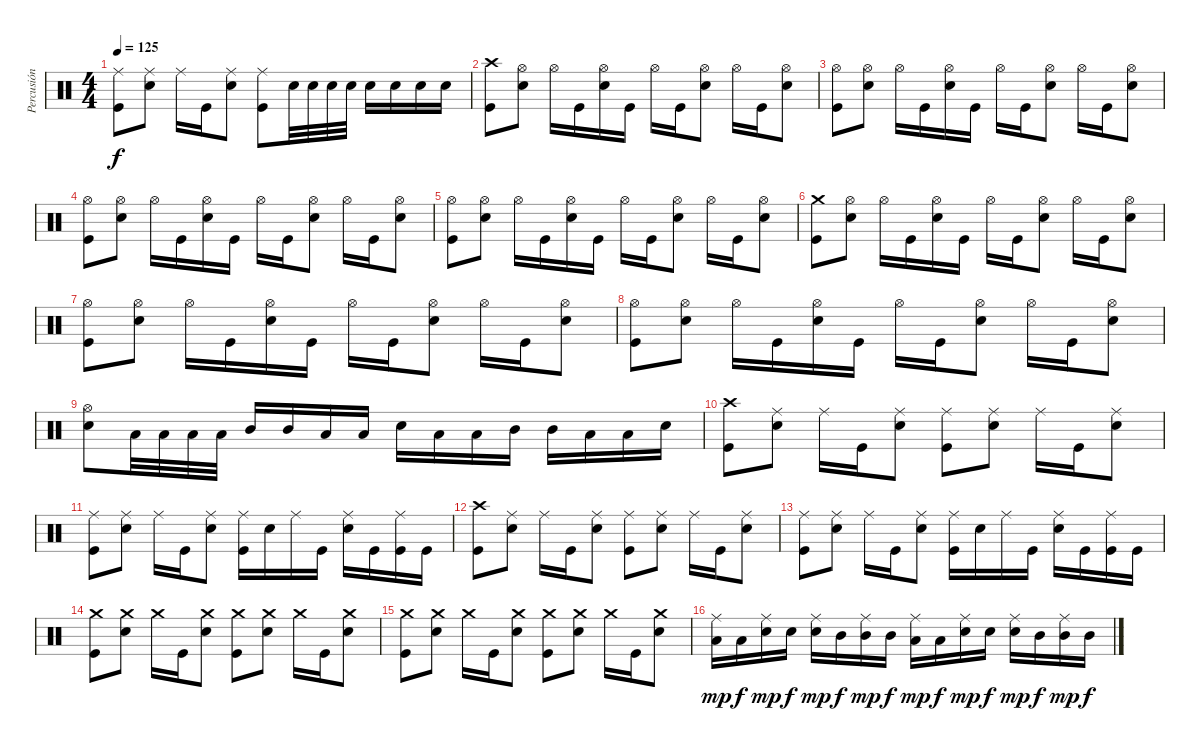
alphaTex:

\track ("Percusión" "Percusión") {instrument percussion}
\staff {score}
\articulation defaults
\ts (4 4)
\tempo 125
\clef neutral
\ks c
("Kick (hit)" "Ride (middle)").8{dy f} ("Snare (hit) 2" "Ride (middle)").8 "Ride (middle)".16 "Kick (hit)".16 ("Snare (hit) 2" "Ride (middle)").8 ("Kick (hit)" "Ride (middle)").8 "Snare (hit) 2".32 "Snare (hit) 2".32 "Snare (hit) 2".32 "Snare (hit) 2".32 "Snare (hit) 2".16 "Snare (hit) 2".16 "Snare (hit) 2".16 "Snare (hit) 2".16 |
("Kick (hit)" "Crash high (hit)").8 ("Snare (hit) 2" "Hi-Hat (open)").8 "Hi-Hat (open)".16 "Kick (hit)".16 ("Snare (hit) 2" "Hi-Hat (open)").16 "Kick (hit)".16 "Hi-Hat (open)".16 "Kick (hit)".16 ("Snare (hit) 2" "Hi-Hat (open)").8 "Hi-Hat (open)".16 "Kick (hit)".16 ("Snare (hit) 2" "Hi-Hat (open)").8 |
("Kick (hit)" "Hi-Hat (open)").8 ("Snare (hit) 2" "Hi-Hat (open)").8 "Hi-Hat (open)".16 "Kick (hit)".16 ("Snare (hit) 2" "Hi-Hat (open)").16 "Kick (hit)".16 "Hi-Hat (open)".16 "Kick (hit)".16 ("Snare (hit) 2" "Hi-Hat (open)").8 "Hi-Hat (open)".16 "Kick (hit)".16 ("Snare (hit) 2" "Hi-Hat (open)").8 |
("Kick (hit)" "Hi-Hat (open)").8 ("Snare (hit) 2" "Hi-Hat (open)").8 "Hi-Hat (open)".16 "Kick (hit)".16 ("Snare (hit) 2" "Hi-Hat (open)").16 "Kick (hit)".16 "Hi-Hat (open)".16 "Kick (hit)".16 ("Snare (hit) 2" "Hi-Hat (open)").8 "Hi-Hat (open)".16 "Kick (hit)".16 ("Snare (hit) 2" "Hi-Hat (open)").8 |
("Kick (hit)" "Hi-Hat (open)").8 ("Snare (hit) 2" "Hi-Hat (open)").8 "Hi-Hat (open)".16 "Kick (hit)".16 ("Snare (hit) 2" "Hi-Hat (open)").16 "Kick (hit)".16 "Hi-Hat (open)".16 "Kick (hit)".16 ("Snare (hit) 2" "Hi-Hat (open)").8 "Hi-Hat (open)".16 "Kick (hit)".16 ("Snare (hit) 2" "Hi-Hat (open)").8 |
("Kick (hit)" "Crash medium (hit)").8 ("Snare (hit) 2" "Hi-Hat (open)").8 "Hi-Hat (open)".16 "Kick (hit)".16 ("Snare (hit) 2" "Hi-Hat (open)").16 "Kick (hit)".16 "Hi-Hat (open)".16 "Kick (hit)".16 ("Snare (hit) 2" "Hi-Hat (open)").8 "Hi-Hat (open)".16 "Kick (hit)".16 ("Snare (hit) 2" "Hi-Hat (open)").8 |
("Kick (hit)" "Hi-Hat (open)").8 ("Snare (hit) 2" "Hi-Hat (open)").8 "Hi-Hat (open)".16 "Kick (hit)".16 ("Snare (hit) 2" "Hi-Hat (open)").16 "Kick (hit)".16 "Hi-Hat (open)".16 "Kick (hit)".16 ("Snare (hit) 2" "Hi-Hat (open)").8 "Hi-Hat (open)".16 "Kick (hit)".16 ("Snare (hit) 2" "Hi-Hat (open)").8 |
("Kick (hit)" "Hi-Hat (open)").8 ("Snare (hit) 2" "Hi-Hat (open)").8 "Hi-Hat (open)".16 "Kick (hit)".16 ("Snare (hit) 2" "Hi-Hat (open)").16 "Kick (hit)".16 "Hi-Hat (open)".16 "Kick (hit)".16 ("Snare (hit) 2" "Hi-Hat (open)").8 "Hi-Hat (open)".16 "Kick (hit)".16 ("Snare (hit) 2" "Hi-Hat (open)").8 |
("Snare (hit) 2" "Hi-Hat (open)").8 "Low Tom (hit)".32 "Low Tom (hit)".32 "Low Tom (hit)".32 "Low Tom (hit)".32 "Mid Tom (hit)".16 "Mid Tom (hit)".16 "Low Tom (hit)".16 "Low Tom (hit)".16 "Snare (hit) 2".16 "Low Tom (hit)".16 "Low Tom (hit)".16 "Mid Tom (hit)".16 "Mid Tom (hit)".16 "Low Tom (hit)".16 "Low Tom (hit)".16 "Snare (hit) 2".16 |
("Kick (hit)" "Crash high (hit)").8 ("Snare (hit) 2" "Ride (middle)").8 "Ride (middle)".16 "Kick (hit)".16 ("Snare (hit) 2" "Ride (middle)").8 ("Kick (hit)" "Ride (middle)").8 ("Snare (hit) 2" "Ride (middle)").8 "Ride (middle)".16 "Kick (hit)".16 ("Snare (hit) 2" "Ride (middle)").8 |
("Kick (hit)" "Ride (middle)").8 ("Snare (hit) 2" "Ride (middle)").8 "Ride (middle)".16 "Kick (hit)".16 ("Snare (hit) 2" "Ride (middle)").8 ("Kick (hit)" "Ride (middle)").16 "Snare (hit) 2".16 "Ride (middle)".16 "Kick (hit)".16 ("Snare (hit) 2" "Ride (middle)").16 "Kick (hit)".16 ("Kick (hit)" "Ride (middle)").16 "Kick (hit)".16 |
("Kick (hit)" "Crash high (hit)").8 ("Snare (hit) 2" "Ride (middle)").8 "Ride (middle)".16 "Kick (hit)".16 ("Snare (hit) 2" "Ride (middle)").8 ("Kick (hit)" "Ride (middle)").8 ("Snare (hit) 2" "Ride (middle)").8 "Ride (middle)".16 "Kick (hit)".16 ("Snare (hit) 2" "Ride (middle)").8 |
("Kick (hit)" "Ride (middle)").8 ("Snare (hit) 2" "Ride (middle)").8 "Ride (middle)".16 "Kick (hit)".16 ("Snare (hit) 2" "Ride (middle)").8 ("Kick (hit)" "Ride (middle)").16 "Snare (hit) 2".16 "Ride (middle)".16 "Kick (hit)".16 ("Snare (hit) 2" "Ride (middle)").16 "Kick (hit)".16 ("Kick (hit)" "Ride (middle)").16 "Kick (hit)".16 |
("Kick (hit)" "Crash medium (hit)").8 ("Snare (hit) 2" "Crash medium (hit)").8 "Crash medium (hit)".16 "Kick (hit)".16 ("Snare (hit) 2" "Crash medium (hit)").8 ("Kick (hit)" "Crash medium (hit)").8 ("Snare (hit) 2" "Crash medium (hit)").8 "Crash medium (hit)".16 "Kick (hit)".16 ("Snare (hit) 2" "Crash medium (hit)").8 |
("Kick (hit)" "Crash medium (hit)").8 ("Snare (hit) 2" "Crash medium (hit)").8 "Crash medium (hit)".16 "Kick (hit)".16 ("Snare (hit) 2" "Crash medium (hit)").8 ("Kick (hit)" "Crash medium (hit)").8 ("Snare (hit) 2" "Crash medium (hit)").8 "Crash medium (hit)".16 "Kick (hit)".16 ("Snare (hit) 2" "Crash medium (hit)").8 |
("Low Tom (hit)" "Ride (middle)").16{dy mp} "Low Tom (hit)".16{dy f} ("Snare (hit) 2" "Ride (middle)").16{dy mp} "Snare (hit) 2".16{dy f} ("Snare (hit) 2" "Ride (middle)").16{dy mp} "Mid Tom (hit)".16{dy f} ("Mid Tom (hit)" "Ride (middle)").16{dy mp} "Mid Tom (hit)".16{dy f} ("Low Tom (hit)" "Ride (middle)").16{dy mp} "Low Tom (hit)".16{dy f} ("Snare (hit) 2" "Ride (middle)").16{dy mp} "Snare (hit) 2".16{dy f} ("Snare (hit) 2" "Ride (middle)").16{dy mp} "Mid Tom (hit)".16{dy f} ("Mid Tom (hit)" "Ride (middle)").16{dy mp} "Mid Tom (hit)".16{dy f}
